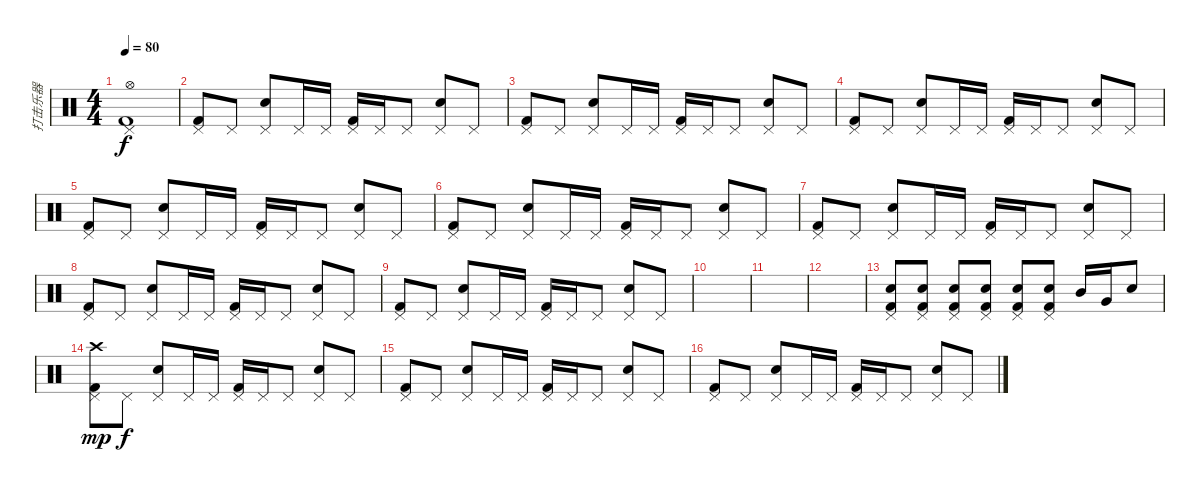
\track ("打击乐器" "打击乐器") {instrument percussion}
\staff {score}
\articulation defaults
\ts (4 4)
\tempo 80
\clef neutral
\ks c
("Pedal Hi-Hat (hit)" "Hi-Hat (open)" "Kick (hit) 2").1{dy f} |
("Pedal Hi-Hat (hit)" "Kick (hit) 2").8 "Pedal Hi-Hat (hit)".8 ("Pedal Hi-Hat (hit)" "Snare (hit) 2").8 "Pedal Hi-Hat (hit)".16 "Pedal Hi-Hat (hit)".16 ("Pedal Hi-Hat (hit)" "Kick (hit) 2").16 "Pedal Hi-Hat (hit)".16 "Pedal Hi-Hat (hit)".8 ("Pedal Hi-Hat (hit)" "Snare (hit) 2").8 "Pedal Hi-Hat (hit)".8 |
("Pedal Hi-Hat (hit)" "Kick (hit) 2").8 "Pedal Hi-Hat (hit)".8 ("Pedal Hi-Hat (hit)" "Snare (hit) 2").8 "Pedal Hi-Hat (hit)".16 "Pedal Hi-Hat (hit)".16 ("Pedal Hi-Hat (hit)" "Kick (hit) 2").16 "Pedal Hi-Hat (hit)".16 "Pedal Hi-Hat (hit)".8 ("Pedal Hi-Hat (hit)" "Snare (hit) 2").8 "Pedal Hi-Hat (hit)".8 |
("Pedal Hi-Hat (hit)" "Kick (hit) 2").8 "Pedal Hi-Hat (hit)".8 ("Pedal Hi-Hat (hit)" "Snare (hit) 2").8 "Pedal Hi-Hat (hit)".16 "Pedal Hi-Hat (hit)".16 ("Pedal Hi-Hat (hit)" "Kick (hit) 2").16 "Pedal Hi-Hat (hit)".16 "Pedal Hi-Hat (hit)".8 ("Pedal Hi-Hat (hit)" "Snare (hit) 2").8 "Pedal Hi-Hat (hit)".8 |
("Pedal Hi-Hat (hit)" "Kick (hit) 2").8 "Pedal Hi-Hat (hit)".8 ("Pedal Hi-Hat (hit)" "Snare (hit) 2").8 "Pedal Hi-Hat (hit)".16 "Pedal Hi-Hat (hit)".16 ("Pedal Hi-Hat (hit)" "Kick (hit) 2").16 "Pedal Hi-Hat (hit)".16 "Pedal Hi-Hat (hit)".8 ("Pedal Hi-Hat (hit)" "Snare (hit) 2").8 "Pedal Hi-Hat (hit)".8 |
("Pedal Hi-Hat (hit)" "Kick (hit) 2").8 "Pedal Hi-Hat (hit)".8 ("Pedal Hi-Hat (hit)" "Snare (hit) 2").8 "Pedal Hi-Hat (hit)".16 "Pedal Hi-Hat (hit)".16 ("Pedal Hi-Hat (hit)" "Kick (hit) 2").16 "Pedal Hi-Hat (hit)".16 "Pedal Hi-Hat (hit)".8 ("Pedal Hi-Hat (hit)" "Snare (hit) 2").8 "Pedal Hi-Hat (hit)".8 |
("Pedal Hi-Hat (hit)" "Kick (hit) 2").8 "Pedal Hi-Hat (hit)".8 ("Pedal Hi-Hat (hit)" "Snare (hit) 2").8 "Pedal Hi-Hat (hit)".16 "Pedal Hi-Hat (hit)".16 ("Pedal Hi-Hat (hit)" "Kick (hit) 2").16 "Pedal Hi-Hat (hit)".16 "Pedal Hi-Hat (hit)".8 ("Pedal Hi-Hat (hit)" "Snare (hit) 2").8 "Pedal Hi-Hat (hit)".8 |
("Pedal Hi-Hat (hit)" "Kick (hit) 2").8 "Pedal Hi-Hat (hit)".8 ("Pedal Hi-Hat (hit)" "Snare (hit) 2").8 "Pedal Hi-Hat (hit)".16 "Pedal Hi-Hat (hit)".16 ("Pedal Hi-Hat (hit)" "Kick (hit) 2").16 "Pedal Hi-Hat (hit)".16 "Pedal Hi-Hat (hit)".8 ("Pedal Hi-Hat (hit)" "Snare (hit) 2").8 "Pedal Hi-Hat (hit)".8 |
("Pedal Hi-Hat (hit)" "Kick (hit) 2").8 "Pedal Hi-Hat (hit)".8 ("Pedal Hi-Hat (hit)" "Snare (hit) 2").8 "Pedal Hi-Hat (hit)".16 "Pedal Hi-Hat (hit)".16 ("Pedal Hi-Hat (hit)" "Kick (hit) 2").16 "Pedal Hi-Hat (hit)".16 "Pedal Hi-Hat (hit)".8 ("Pedal Hi-Hat (hit)" "Snare (hit) 2").8 "Pedal Hi-Hat (hit)".8 |
|
|
|
("Snare (hit) 2" "Pedal Hi-Hat (hit)" "Kick (hit) 2").8 ("Snare (hit) 2" "Pedal Hi-Hat (hit)" "Kick (hit) 2").8 ("Snare (hit) 2" "Pedal Hi-Hat (hit)" "Kick (hit) 2").8 ("Snare (hit) 2" "Pedal Hi-Hat (hit)" "Kick (hit) 2").8 ("Snare (hit) 2" "Pedal Hi-Hat (hit)" "Kick (hit) 2").8 ("Snare (hit) 2" "Pedal Hi-Hat (hit)" "Kick (hit) 2").8 "Mid Tom (hit)".16 "Very Low Tom (hit)".16 "Snare (hit) 2".8 |
("Pedal Hi-Hat (hit)" "Crash high (hit)" "Kick (hit) 2").8{dy mp} "Pedal Hi-Hat (hit)".8{dy f} ("Pedal Hi-Hat (hit)" "Snare (hit) 2").8 "Pedal Hi-Hat (hit)".16 "Pedal Hi-Hat (hit)".16 ("Pedal Hi-Hat (hit)" "Kick (hit) 2").16 "Pedal Hi-Hat (hit)".16 "Pedal Hi-Hat (hit)".8 ("Pedal Hi-Hat (hit)" "Snare (hit) 2").8 "Pedal Hi-Hat (hit)".8 |
("Pedal Hi-Hat (hit)" "Kick (hit) 2").8 "Pedal Hi-Hat (hit)".8 ("Pedal Hi-Hat (hit)" "Snare (hit) 2").8 "Pedal Hi-Hat (hit)".16 "Pedal Hi-Hat (hit)".16 ("Pedal Hi-Hat (hit)" "Kick (hit) 2").16 "Pedal Hi-Hat (hit)".16 "Pedal Hi-Hat (hit)".8 ("Pedal Hi-Hat (hit)" "Snare (hit) 2").8 "Pedal Hi-Hat (hit)".8 |
("Pedal Hi-Hat (hit)" "Kick (hit) 2").8 "Pedal Hi-Hat (hit)".8 ("Pedal Hi-Hat (hit)" "Snare (hit) 2").8 "Pedal Hi-Hat (hit)".16 "Pedal Hi-Hat (hit)".16 ("Pedal Hi-Hat (hit)" "Kick (hit) 2").16 "Pedal Hi-Hat (hit)".16 "Pedal Hi-Hat (hit)".8 ("Pedal Hi-Hat (hit)" "Snare (hit) 2").8 "Pedal Hi-Hat (hit)".8
